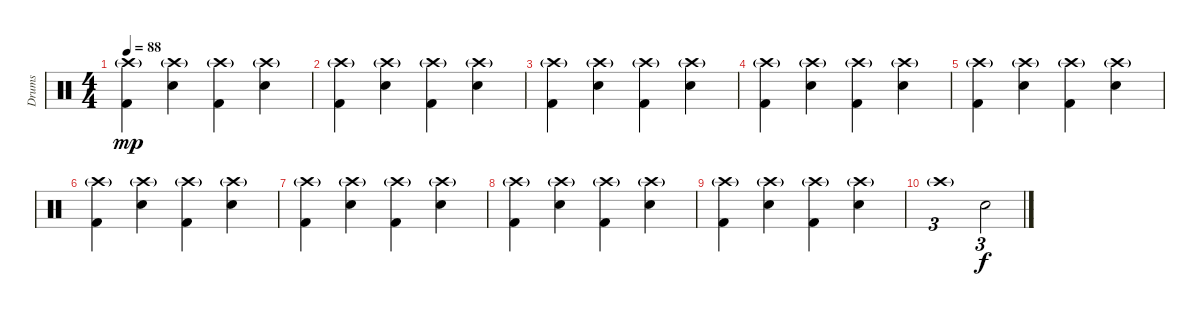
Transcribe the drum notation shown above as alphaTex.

\track ("Drums" "Drums") {instrument percussion}
\staff {score}
\articulation defaults
\ts (4 4)
\tempo 88
\clef neutral
\ks c
("Crash high (hit)"{g} "Kick (hit) 2").4{dy mp} ("Crash high (hit)"{g} "Snare (hit) 2").4 ("Crash high (hit)"{g} "Kick (hit) 2").4 ("Crash high (hit)"{g} "Snare (hit) 2").4 |
("Crash high (hit)"{g} "Kick (hit) 2").4 ("Crash high (hit)"{g} "Snare (hit) 2").4 ("Crash high (hit)"{g} "Kick (hit) 2").4 ("Crash high (hit)"{g} "Snare (hit) 2").4 |
("Crash high (hit)"{g} "Kick (hit) 2").4 ("Crash high (hit)"{g} "Snare (hit) 2").4 ("Crash high (hit)"{g} "Kick (hit) 2").4 ("Crash high (hit)"{g} "Snare (hit) 2").4 |
("Crash high (hit)"{g} "Kick (hit) 2").4 ("Crash high (hit)"{g} "Snare (hit) 2").4 ("Crash high (hit)"{g} "Kick (hit) 2").4 ("Crash high (hit)"{g} "Snare (hit) 2").4 |
("Crash high (hit)"{g} "Kick (hit) 2").4 ("Crash high (hit)"{g} "Snare (hit) 2").4 ("Crash high (hit)"{g} "Kick (hit) 2").4 ("Crash high (hit)"{g} "Snare (hit) 2").4 |
("Crash high (hit)"{g} "Kick (hit) 2").4 ("Crash high (hit)"{g} "Snare (hit) 2").4 ("Crash high (hit)"{g} "Kick (hit) 2").4 ("Crash high (hit)"{g} "Snare (hit) 2").4 |
("Crash high (hit)"{g} "Kick (hit) 2").4 ("Crash high (hit)"{g} "Snare (hit) 2").4 ("Crash high (hit)"{g} "Kick (hit) 2").4 ("Crash high (hit)"{g} "Snare (hit) 2").4 |
("Crash high (hit)"{g} "Kick (hit) 2").4 ("Crash high (hit)"{g} "Snare (hit) 2").4 ("Crash high (hit)"{g} "Kick (hit) 2").4 ("Crash high (hit)"{g} "Snare (hit) 2").4 |
("Crash high (hit)"{g} "Kick (hit) 2").4 ("Crash high (hit)"{g} "Snare (hit) 2").4 ("Crash high (hit)"{g} "Kick (hit) 2").4 ("Crash high (hit)"{g} "Snare (hit) 2").4 |
"Crash high (hit)"{g}.1{tu (3 2)} "Snare (hit)".2{tu (3 2) dy f}
